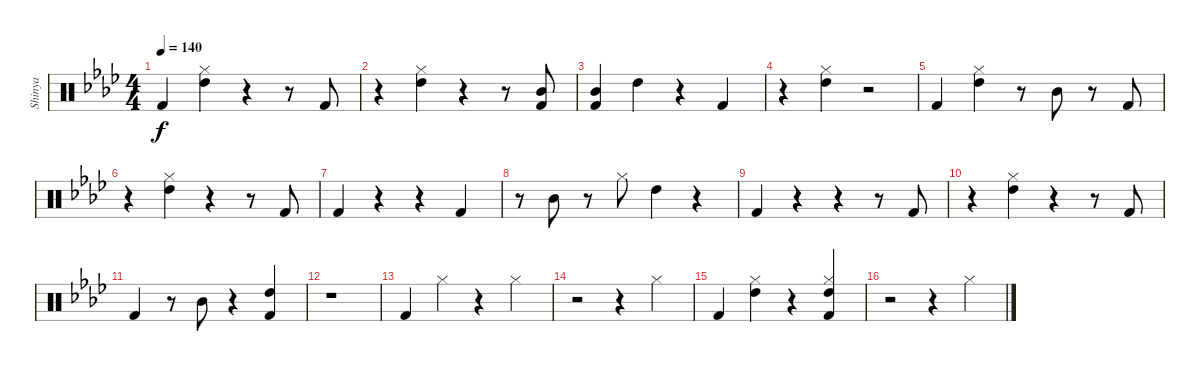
\track ("Shinya" "Shinya") {instrument percussion}
\staff {score}
\articulation defaults
\ts (4 4)
\tempo 140
\clef neutral
\ks ab "Kick (hit) 2".4{dy f}
("Hi-Hat (closed)" "High Tom (hit)").4 r.4 r.8 "Kick (hit) 2".8 |
r.4 ("Hi-Hat (closed)" "High Tom (hit)").4 r.4 r.8 ("Mid Tom (hit)" "Kick (hit) 2").8 |
("Mid Tom (hit)" "Kick (hit) 2").4 "High Tom (hit)".4 r.4 "Kick (hit) 2".4 |
r.4 ("Hi-Hat (closed)" "High Tom (hit)").4 r.2 |
"Kick (hit) 2".4 ("Hi-Hat (closed)" "High Tom (hit)").4 r.8 "Mid Tom (hit)".8 r.8 "Kick (hit) 2".8 |
r.4 ("Hi-Hat (closed)" "High Tom (hit)").4 r.4 r.8 "Kick (hit) 2".8 |
"Kick (hit) 2".4 r.4 r.4 "Kick (hit) 2".4 |
r.8 "Mid Tom (hit)".8 r.8 "Hi-Hat (closed)".8 "High Tom (hit)".4 r.4 |
"Kick (hit) 2".4 r.4 r.4 r.8 "Kick (hit) 2".8 |
r.4 ("Hi-Hat (closed)" "High Tom (hit)").4 r.4 r.8 "Kick (hit) 2".8 |
"Kick (hit) 2".4 r.8 "Mid Tom (hit)".8 r.4 ("High Tom (hit)" "Kick (hit) 2").4 |
r.1 |
"Kick (hit) 2".4 "Hi-Hat (closed)".4 r.4 "Hi-Hat (closed)".4 |
r.2 r.4 "Hi-Hat (closed)".4 |
"Kick (hit) 2".4 ("Hi-Hat (closed)" "High Tom (hit)").4 r.4 ("Hi-Hat (closed)" "High Tom (hit)" "Kick (hit) 2").4 |
r.2 r.4 "Hi-Hat (closed)".4
